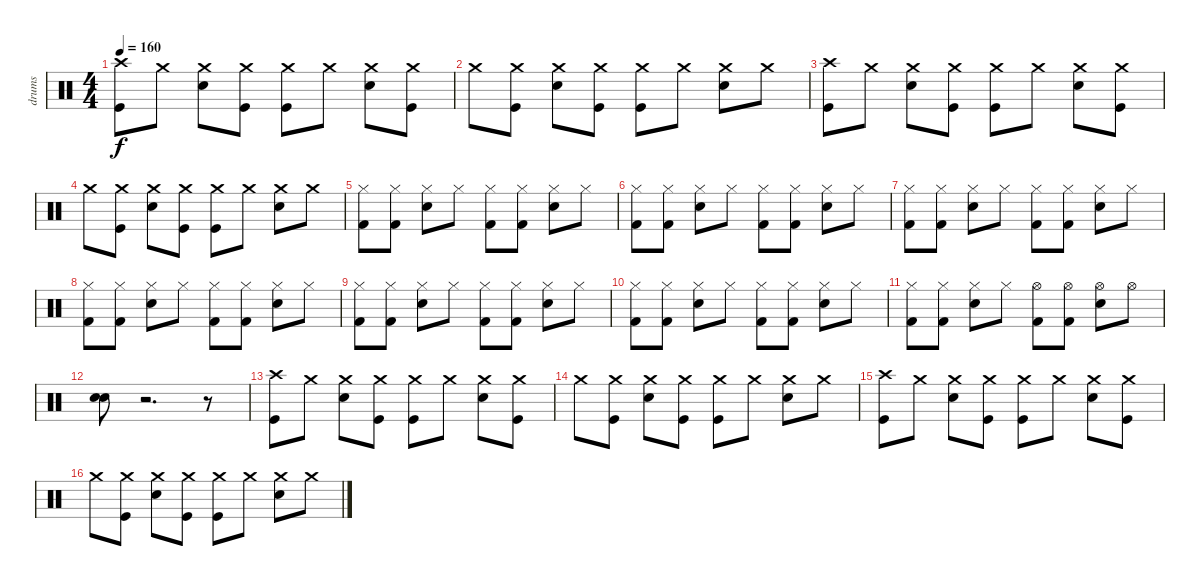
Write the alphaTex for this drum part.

\track ("drums" "drums") {instrument percussion}
\staff {score}
\articulation defaults
\ts (4 4)
\tempo 160
\clef neutral
\ks c
("Crash high (hit)" "Kick (hit)").8{dy f} "Crash medium (hit)".8 ("Crash medium (hit)" "Snare (hit) 2").8 ("Crash medium (hit)" "Kick (hit)").8 ("Crash medium (hit)" "Kick (hit)").8 "Crash medium (hit)".8 ("Crash medium (hit)" "Snare (hit) 2").8 ("Crash medium (hit)" "Kick (hit)").8 |
"Crash medium (hit)".8 ("Crash medium (hit)" "Kick (hit)").8 ("Crash medium (hit)" "Snare (hit) 2").8 ("Crash medium (hit)" "Kick (hit)").8 ("Crash medium (hit)" "Kick (hit)").8 "Crash medium (hit)".8 ("Crash medium (hit)" "Snare (hit) 2").8 "Crash medium (hit)".8 |
("Crash high (hit)" "Kick (hit)").8 "Crash medium (hit)".8 ("Crash medium (hit)" "Snare (hit) 2").8 ("Crash medium (hit)" "Kick (hit)").8 ("Crash medium (hit)" "Kick (hit)").8 "Crash medium (hit)".8 ("Crash medium (hit)" "Snare (hit) 2").8 ("Crash medium (hit)" "Kick (hit)").8 |
"Crash medium (hit)".8 ("Crash medium (hit)" "Kick (hit)").8 ("Crash medium (hit)" "Snare (hit) 2").8 ("Crash medium (hit)" "Kick (hit)").8 ("Crash medium (hit)" "Kick (hit)").8 "Crash medium (hit)".8 ("Crash medium (hit)" "Snare (hit) 2").8 "Crash medium (hit)".8 |
("Hi-Hat (closed)" "Kick (hit) 2").8 ("Hi-Hat (closed)" "Kick (hit) 2").8 ("Hi-Hat (closed)" "Electric Snare (hit)").8 "Hi-Hat (closed)".8 ("Hi-Hat (closed)" "Kick (hit) 2").8 ("Hi-Hat (closed)" "Kick (hit) 2").8 ("Hi-Hat (closed)" "Electric Snare (hit)").8 "Hi-Hat (closed)".8 |
("Hi-Hat (closed)" "Kick (hit) 2").8 ("Hi-Hat (closed)" "Kick (hit) 2").8 ("Hi-Hat (closed)" "Electric Snare (hit)").8 "Hi-Hat (closed)".8 ("Hi-Hat (closed)" "Kick (hit) 2").8 ("Hi-Hat (closed)" "Kick (hit) 2").8 ("Hi-Hat (closed)" "Electric Snare (hit)").8 "Hi-Hat (closed)".8 |
("Hi-Hat (closed)" "Kick (hit) 2").8 ("Hi-Hat (closed)" "Kick (hit) 2").8 ("Hi-Hat (closed)" "Electric Snare (hit)").8 "Hi-Hat (closed)".8 ("Hi-Hat (closed)" "Kick (hit) 2").8 ("Hi-Hat (closed)" "Kick (hit) 2").8 ("Hi-Hat (closed)" "Electric Snare (hit)").8 "Hi-Hat (closed)".8 |
("Hi-Hat (closed)" "Kick (hit) 2").8 ("Hi-Hat (closed)" "Kick (hit) 2").8 ("Hi-Hat (closed)" "Electric Snare (hit)").8 "Hi-Hat (closed)".8 ("Hi-Hat (closed)" "Kick (hit) 2").8 ("Hi-Hat (closed)" "Kick (hit) 2").8 ("Hi-Hat (closed)" "Electric Snare (hit)").8 "Hi-Hat (closed)".8 |
("Hi-Hat (closed)" "Kick (hit) 2").8 ("Hi-Hat (closed)" "Kick (hit) 2").8 ("Hi-Hat (closed)" "Electric Snare (hit)").8 "Hi-Hat (closed)".8 ("Hi-Hat (closed)" "Kick (hit) 2").8 ("Hi-Hat (closed)" "Kick (hit) 2").8 ("Hi-Hat (closed)" "Electric Snare (hit)").8 "Hi-Hat (closed)".8 |
("Hi-Hat (closed)" "Kick (hit) 2").8 ("Hi-Hat (closed)" "Kick (hit) 2").8 ("Hi-Hat (closed)" "Electric Snare (hit)").8 "Hi-Hat (closed)".8 ("Hi-Hat (closed)" "Kick (hit) 2").8 ("Hi-Hat (closed)" "Kick (hit) 2").8 ("Hi-Hat (closed)" "Electric Snare (hit)").8 "Hi-Hat (closed)".8 |
("Hi-Hat (closed)" "Kick (hit) 2").8 ("Hi-Hat (closed)" "Kick (hit) 2").8 ("Hi-Hat (closed)" "Electric Snare (hit)").8 "Hi-Hat (closed)".8 ("Hi-Hat (open)" "Kick (hit) 2").8 ("Hi-Hat (open)" "Kick (hit) 2").8 ("Hi-Hat (open)" "Electric Snare (hit)").8 "Hi-Hat (open)".8 |
("Electric Snare (hit)" "Electric Snare (hit)").8 r.2{d} r.8 |
("Crash high (hit)" "Kick (hit)").8 "Crash medium (hit)".8 ("Crash medium (hit)" "Snare (hit) 2").8 ("Crash medium (hit)" "Kick (hit)").8 ("Crash medium (hit)" "Kick (hit)").8 "Crash medium (hit)".8 ("Crash medium (hit)" "Snare (hit) 2").8 ("Crash medium (hit)" "Kick (hit)").8 |
"Crash medium (hit)".8 ("Crash medium (hit)" "Kick (hit)").8 ("Crash medium (hit)" "Snare (hit) 2").8 ("Crash medium (hit)" "Kick (hit)").8 ("Crash medium (hit)" "Kick (hit)").8 "Crash medium (hit)".8 ("Crash medium (hit)" "Snare (hit) 2").8 "Crash medium (hit)".8 |
("Crash high (hit)" "Kick (hit)").8 "Crash medium (hit)".8 ("Crash medium (hit)" "Snare (hit) 2").8 ("Crash medium (hit)" "Kick (hit)").8 ("Crash medium (hit)" "Kick (hit)").8 "Crash medium (hit)".8 ("Crash medium (hit)" "Snare (hit) 2").8 ("Crash medium (hit)" "Kick (hit)").8 |
"Crash medium (hit)".8 ("Crash medium (hit)" "Kick (hit)").8 ("Crash medium (hit)" "Snare (hit) 2").8 ("Crash medium (hit)" "Kick (hit)").8 ("Crash medium (hit)" "Kick (hit)").8 "Crash medium (hit)".8 ("Crash medium (hit)" "Snare (hit) 2").8 "Crash medium (hit)".8
